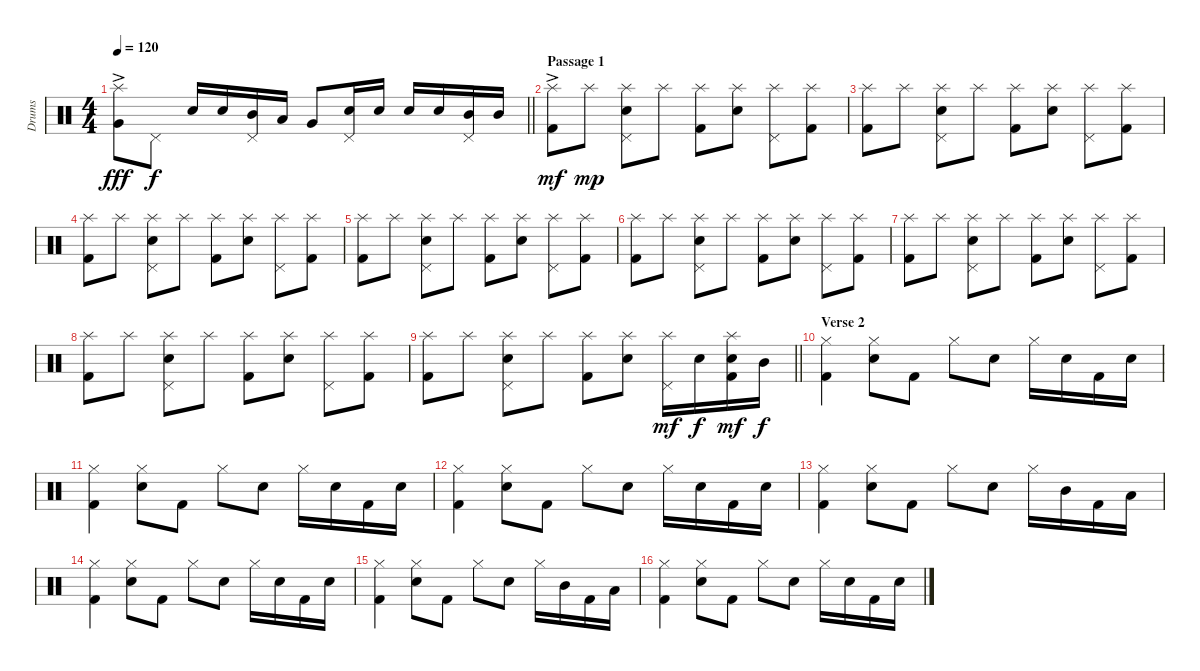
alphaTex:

\track ("Drums" "Drums") {instrument percussion}
\staff {score}
\articulation defaults
\ts (4 4)
\tempo 120
\clef neutral
\barLineRight lightlight
\ks c
("Splash (hit)"{ac} "Very Low Tom (hit)").8{dy fff} "Pedal Hi-Hat (hit)".8{dy f} "Snare (hit) 2".16 "Snare (hit) 2".16 ("Mid Tom (hit)" "Pedal Hi-Hat (hit)").16 "Low Tom (hit)".16 "Very Low Tom (hit)".8 ("Snare (hit) 2" "Pedal Hi-Hat (hit)").16 "Snare (hit) 2".16 "Snare (hit) 2".16 "Snare (hit) 2".16 ("Mid Tom (hit)" "Pedal Hi-Hat (hit)").16 "Mid Tom (hit)".16 |
\section ("" "Passage 1")
("Splash (hit)"{ac} "Kick (hit) 2").8{dy mf} "Splash (hit)".8{dy mp} ("Splash (hit)" "Snare (hit) 2" "Pedal Hi-Hat (hit)").8 "Splash (hit)".8 ("Splash (hit)" "Kick (hit) 2").8 ("Splash (hit)" "Snare (hit) 2").8 ("Splash (hit)" "Pedal Hi-Hat (hit)").8 ("Splash (hit)" "Kick (hit) 2").8 |
("Splash (hit)" "Kick (hit) 2").8 "Splash (hit)".8 ("Splash (hit)" "Snare (hit) 2" "Pedal Hi-Hat (hit)").8 "Splash (hit)".8 ("Splash (hit)" "Kick (hit) 2").8 ("Splash (hit)" "Snare (hit) 2").8 ("Splash (hit)" "Pedal Hi-Hat (hit)").8 ("Splash (hit)" "Kick (hit) 2").8 |
("Splash (hit)" "Kick (hit) 2").8 "Splash (hit)".8 ("Splash (hit)" "Snare (hit) 2" "Pedal Hi-Hat (hit)").8 "Splash (hit)".8 ("Splash (hit)" "Kick (hit) 2").8 ("Splash (hit)" "Snare (hit) 2").8 ("Splash (hit)" "Pedal Hi-Hat (hit)").8 ("Splash (hit)" "Kick (hit) 2").8 |
("Splash (hit)" "Kick (hit) 2").8 "Splash (hit)".8 ("Splash (hit)" "Snare (hit) 2" "Pedal Hi-Hat (hit)").8 "Splash (hit)".8 ("Splash (hit)" "Kick (hit) 2").8 ("Splash (hit)" "Snare (hit) 2").8 ("Splash (hit)" "Pedal Hi-Hat (hit)").8 ("Splash (hit)" "Kick (hit) 2").8 |
("Splash (hit)" "Kick (hit) 2").8 "Splash (hit)".8 ("Splash (hit)" "Snare (hit) 2" "Pedal Hi-Hat (hit)").8 "Splash (hit)".8 ("Splash (hit)" "Kick (hit) 2").8 ("Splash (hit)" "Snare (hit) 2").8 ("Splash (hit)" "Pedal Hi-Hat (hit)").8 ("Splash (hit)" "Kick (hit) 2").8 |
("Splash (hit)" "Kick (hit) 2").8 "Splash (hit)".8 ("Splash (hit)" "Snare (hit) 2" "Pedal Hi-Hat (hit)").8 "Splash (hit)".8 ("Splash (hit)" "Kick (hit) 2").8 ("Splash (hit)" "Snare (hit) 2").8 ("Splash (hit)" "Pedal Hi-Hat (hit)").8 ("Splash (hit)" "Kick (hit) 2").8 |
("Splash (hit)" "Kick (hit) 2").8 "Splash (hit)".8 ("Splash (hit)" "Snare (hit) 2" "Pedal Hi-Hat (hit)").8 "Splash (hit)".8 ("Splash (hit)" "Kick (hit) 2").8 ("Splash (hit)" "Snare (hit) 2").8 ("Splash (hit)" "Pedal Hi-Hat (hit)").8 ("Splash (hit)" "Kick (hit) 2").8 |
\barLineRight lightlight
("Splash (hit)" "Kick (hit) 2").8 "Splash (hit)".8 ("Splash (hit)" "Snare (hit) 2" "Pedal Hi-Hat (hit)").8 "Splash (hit)".8 ("Splash (hit)" "Kick (hit) 2").8 ("Splash (hit)" "Snare (hit) 2").8 ("Splash (hit)" "Pedal Hi-Hat (hit)").16{dy mf} "Snare (hit) 2".16{dy f} ("Splash (hit)" "Snare (hit) 2" "Kick (hit) 2").16{dy mf} "Mid Tom (hit)".16{dy f} |
\section ("" "Verse 2")
("Hi-Hat (closed)" "Kick (hit) 2").4 ("Hi-Hat (closed)" "Snare (hit) 2").8 "Kick (hit) 2".8 "Hi-Hat (closed)".8 "Snare (hit) 2".8 "Hi-Hat (closed)".16 "Snare (hit) 2".16 "Kick (hit) 2".16 "Snare (hit) 2".16 |
("Hi-Hat (closed)" "Kick (hit) 2").4 ("Hi-Hat (closed)" "Snare (hit) 2").8 "Kick (hit) 2".8 "Hi-Hat (closed)".8 "Snare (hit) 2".8 "Hi-Hat (closed)".16 "Snare (hit) 2".16 "Kick (hit) 2".16 "Snare (hit) 2".16 |
("Hi-Hat (closed)" "Kick (hit) 2").4 ("Hi-Hat (closed)" "Snare (hit) 2").8 "Kick (hit) 2".8 "Hi-Hat (closed)".8 "Snare (hit) 2".8 "Hi-Hat (closed)".16 "Snare (hit) 2".16 "Kick (hit) 2".16 "Snare (hit) 2".16 |
("Hi-Hat (closed)" "Kick (hit) 2").4 ("Hi-Hat (closed)" "Snare (hit) 2").8 "Kick (hit) 2".8 "Hi-Hat (closed)".8 "Snare (hit) 2".8 "Hi-Hat (closed)".16 "Mid Tom (hit)".16 "Kick (hit) 2".16 "Low Tom (hit)".16 |
("Hi-Hat (closed)" "Kick (hit) 2").4 ("Hi-Hat (closed)" "Snare (hit) 2").8 "Kick (hit) 2".8 "Hi-Hat (closed)".8 "Snare (hit) 2".8 "Hi-Hat (closed)".16 "Snare (hit) 2".16 "Kick (hit) 2".16 "Snare (hit) 2".16 |
("Hi-Hat (closed)" "Kick (hit) 2").4 ("Hi-Hat (closed)" "Snare (hit) 2").8 "Kick (hit) 2".8 "Hi-Hat (closed)".8 "Snare (hit) 2".8 "Hi-Hat (closed)".16 "Mid Tom (hit)".16 "Kick (hit) 2".16 "Low Tom (hit)".16 |
("Hi-Hat (closed)" "Kick (hit) 2").4 ("Hi-Hat (closed)" "Snare (hit) 2").8 "Kick (hit) 2".8 "Hi-Hat (closed)".8 "Snare (hit) 2".8 "Hi-Hat (closed)".16 "Snare (hit) 2".16 "Kick (hit) 2".16 "Snare (hit) 2".16
